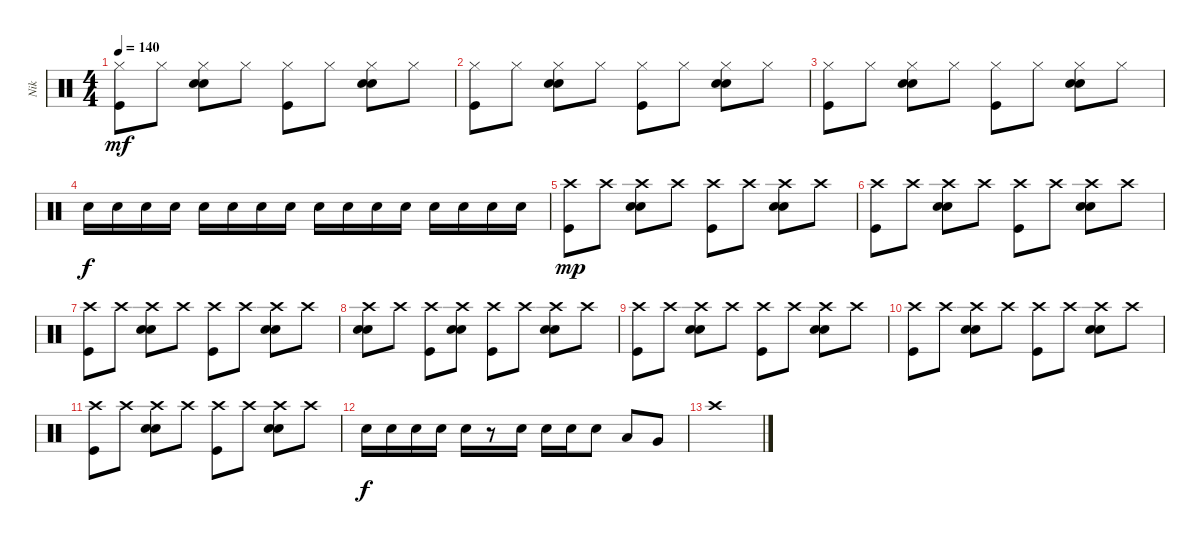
\track ("Nik" "Nik") {instrument percussion}
\staff {score}
\articulation defaults
\ts (4 4)
\tempo 140
\clef neutral
\ks c
("Kick (hit)" "Hi-Hat (closed)").8{dy mf} "Hi-Hat (closed)".8 ("Electric Snare (hit)" "Electric Snare (hit)" "Hi-Hat (closed)").8 "Hi-Hat (closed)".8 ("Kick (hit)" "Hi-Hat (closed)").8 "Hi-Hat (closed)".8 ("Electric Snare (hit)" "Electric Snare (hit)" "Hi-Hat (closed)").8 "Hi-Hat (closed)".8 |
("Kick (hit)" "Hi-Hat (closed)").8 "Hi-Hat (closed)".8 ("Electric Snare (hit)" "Electric Snare (hit)" "Hi-Hat (closed)").8 "Hi-Hat (closed)".8 ("Kick (hit)" "Hi-Hat (closed)").8 "Hi-Hat (closed)".8 ("Electric Snare (hit)" "Electric Snare (hit)" "Hi-Hat (closed)").8 "Hi-Hat (closed)".8 |
("Kick (hit)" "Hi-Hat (closed)").8 "Hi-Hat (closed)".8 ("Electric Snare (hit)" "Electric Snare (hit)" "Hi-Hat (closed)").8 "Hi-Hat (closed)".8 ("Kick (hit)" "Hi-Hat (closed)").8 "Hi-Hat (closed)".8 ("Electric Snare (hit)" "Electric Snare (hit)" "Hi-Hat (closed)").8 "Hi-Hat (closed)".8 |
"Electric Snare (hit)".16{dy f} "Electric Snare (hit)".16 "Electric Snare (hit)".16 "Electric Snare (hit)".16 "Electric Snare (hit)".16 "Electric Snare (hit)".16 "Electric Snare (hit)".16 "Electric Snare (hit)".16 "Electric Snare (hit)".16 "Electric Snare (hit)".16 "Electric Snare (hit)".16 "Electric Snare (hit)".16 "Electric Snare (hit)".16 "Electric Snare (hit)".16 "Electric Snare (hit)".16 "Electric Snare (hit)".16 |
("Kick (hit)" "Crash high (hit)").8{dy mp} "Crash high (hit)".8 ("Electric Snare (hit)" "Electric Snare (hit)" "Crash high (hit)").8 "Crash high (hit)".8 ("Kick (hit)" "Crash high (hit)").8 "Crash high (hit)".8 ("Electric Snare (hit)" "Electric Snare (hit)" "Crash high (hit)").8 "Crash high (hit)".8 |
("Kick (hit)" "Crash high (hit)").8 "Crash high (hit)".8 ("Electric Snare (hit)" "Electric Snare (hit)" "Crash high (hit)").8 "Crash high (hit)".8 ("Kick (hit)" "Crash high (hit)").8 "Crash high (hit)".8 ("Electric Snare (hit)" "Electric Snare (hit)" "Crash high (hit)").8 "Crash high (hit)".8 |
("Kick (hit)" "Crash high (hit)").8 "Crash high (hit)".8 ("Electric Snare (hit)" "Electric Snare (hit)" "Crash high (hit)").8 "Crash high (hit)".8 ("Kick (hit)" "Crash high (hit)").8 "Crash high (hit)".8 ("Electric Snare (hit)" "Electric Snare (hit)" "Crash high (hit)").8 "Crash high (hit)".8 |
("Electric Snare (hit)" "Electric Snare (hit)" "Crash high (hit)").8 "Crash high (hit)".8 ("Kick (hit)" "Crash high (hit)").8 ("Electric Snare (hit)" "Electric Snare (hit)" "Crash high (hit)").8 ("Kick (hit)" "Crash high (hit)").8 "Crash high (hit)".8 ("Electric Snare (hit)" "Electric Snare (hit)" "Crash high (hit)").8 "Crash high (hit)".8 |
("Kick (hit)" "Crash high (hit)").8 "Crash high (hit)".8 ("Electric Snare (hit)" "Electric Snare (hit)" "Crash high (hit)").8 "Crash high (hit)".8 ("Kick (hit)" "Crash high (hit)").8 "Crash high (hit)".8 ("Electric Snare (hit)" "Electric Snare (hit)" "Crash high (hit)").8 "Crash high (hit)".8 |
("Kick (hit)" "Crash high (hit)").8 "Crash high (hit)".8 ("Electric Snare (hit)" "Electric Snare (hit)" "Crash high (hit)").8 "Crash high (hit)".8 ("Kick (hit)" "Crash high (hit)").8 "Crash high (hit)".8 ("Electric Snare (hit)" "Electric Snare (hit)" "Crash high (hit)").8 "Crash high (hit)".8 |
("Kick (hit)" "Crash high (hit)").8 "Crash high (hit)".8 ("Electric Snare (hit)" "Electric Snare (hit)" "Crash high (hit)").8 "Crash high (hit)".8 ("Kick (hit)" "Crash high (hit)").8 "Crash high (hit)".8 ("Electric Snare (hit)" "Electric Snare (hit)" "Crash high (hit)").8 "Crash high (hit)".8 |
"Electric Snare (hit)".16{dy f} "Electric Snare (hit)".16 "Electric Snare (hit)".16 "Electric Snare (hit)".16 "Electric Snare (hit)".16 r.8 "Electric Snare (hit)".16 "Electric Snare (hit)".16 "Electric Snare (hit)".16 "Snare (hit) 2".8 "Low Tom (hit)".8 "Very Low Tom (hit)".8 |
"Crash high (hit)".1
